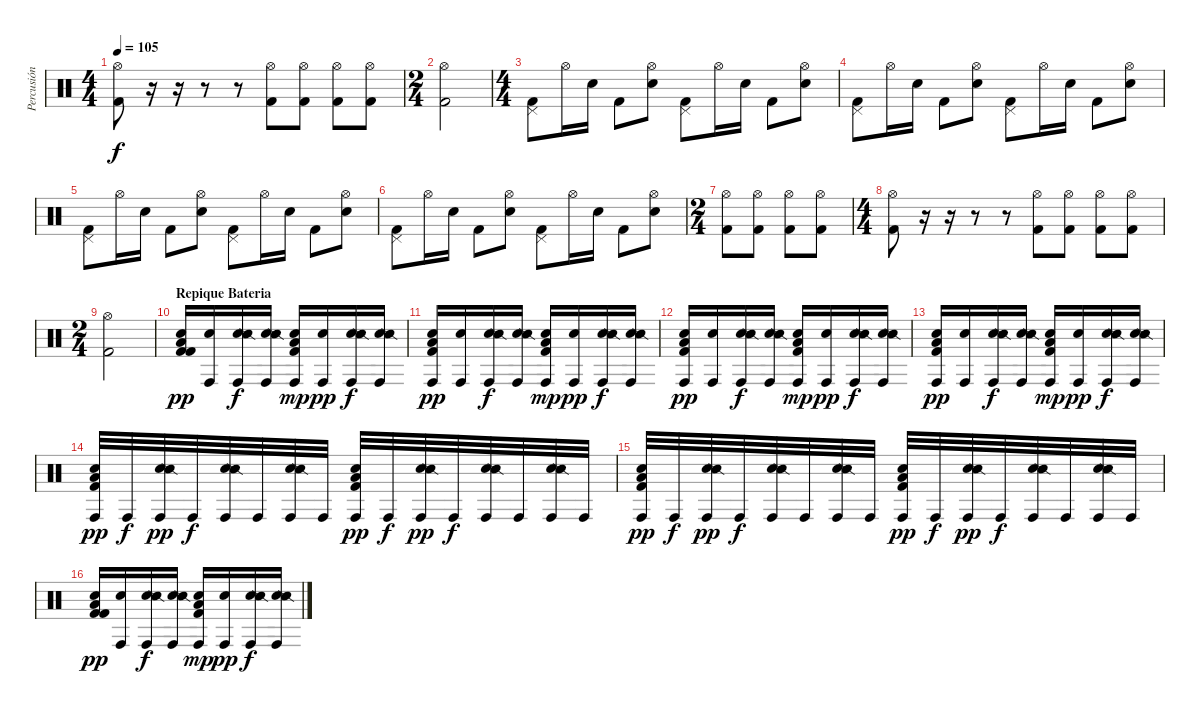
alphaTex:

\track ("Percusión" "Percusión") {instrument percussion}
\staff {score}
\articulation defaults
\ts (4 4)
\tempo 105
\clef neutral
\ks c
("Hi-Hat (open)" "Kick (hit) 2").8{dy f} r.16 r.16 r.8 r.8 ("Hi-Hat (open)" "Kick (hit) 2").8 ("Hi-Hat (open)" "Kick (hit) 2").8 ("Hi-Hat (open)" "Kick (hit) 2").8 ("Hi-Hat (open)" "Kick (hit) 2").8 |
\ts (2 4)
("Hi-Hat (open)" "Kick (hit) 2").2 |
\ts (4 4)
("Pedal Hi-Hat (hit)" "Kick (hit) 2").8 "Hi-Hat (open)".16 "Electric Snare (hit)".16 "Kick (hit) 2".8 ("Electric Snare (hit)" "Hi-Hat (open)").8 ("Pedal Hi-Hat (hit)" "Kick (hit) 2").8 "Hi-Hat (open)".16 "Electric Snare (hit)".16 "Kick (hit) 2".8 ("Electric Snare (hit)" "Hi-Hat (open)").8 |
("Pedal Hi-Hat (hit)" "Kick (hit) 2").8 "Hi-Hat (open)".16 "Electric Snare (hit)".16 "Kick (hit) 2".8 ("Electric Snare (hit)" "Hi-Hat (open)").8 ("Pedal Hi-Hat (hit)" "Kick (hit) 2").8 "Hi-Hat (open)".16 "Electric Snare (hit)".16 "Kick (hit) 2".8 ("Electric Snare (hit)" "Hi-Hat (open)").8 |
("Pedal Hi-Hat (hit)" "Kick (hit) 2").8 "Hi-Hat (open)".16 "Electric Snare (hit)".16 "Kick (hit) 2".8 ("Electric Snare (hit)" "Hi-Hat (open)").8 ("Pedal Hi-Hat (hit)" "Kick (hit) 2").8 "Hi-Hat (open)".16 "Electric Snare (hit)".16 "Kick (hit) 2".8 ("Electric Snare (hit)" "Hi-Hat (open)").8 |
("Pedal Hi-Hat (hit)" "Kick (hit) 2").8 "Hi-Hat (open)".16 "Electric Snare (hit)".16 "Kick (hit) 2".8 ("Electric Snare (hit)" "Hi-Hat (open)").8 ("Pedal Hi-Hat (hit)" "Kick (hit) 2").8 "Hi-Hat (open)".16 "Electric Snare (hit)".16 "Kick (hit) 2".8 ("Electric Snare (hit)" "Hi-Hat (open)").8 |
\ts (2 4)
("Hi-Hat (open)" "Kick (hit) 2").8 ("Hi-Hat (open)" "Kick (hit) 2").8 ("Hi-Hat (open)" "Kick (hit) 2").8 ("Hi-Hat (open)" "Kick (hit) 2").8 |
\ts (4 4)
("Hi-Hat (open)" "Kick (hit) 2").8 r.16 r.16 r.8 r.8 ("Hi-Hat (open)" "Kick (hit) 2").8 ("Hi-Hat (open)" "Kick (hit) 2").8 ("Hi-Hat (open)" "Kick (hit) 2").8 ("Hi-Hat (open)" "Kick (hit) 2").8 |
\ts (2 4)
("Hi-Hat (open)" "Kick (hit) 2").2 |
\section ("" "Repique Bateria")
("Electric Snare (hit)" "Kick (hit) 2" "Kick (hit) 2" "Low Floor Tom (hit)").16{dy pp} ("Electric Snare (hit)" "Conga high (hit)").16 ("Electric Snare (hit)" "Snare (side stick) 2" "Conga high (hit)").16{dy f} ("Electric Snare (hit)" "Snare (side stick) 2" "Conga high (hit)").16 ("Electric Snare (hit)" "Conga high (hit)" "Kick (hit) 2" "Low Floor Tom (hit)").16{dy mp} ("Electric Snare (hit)" "Conga high (hit)").16{dy pp} ("Electric Snare (hit)" "Snare (side stick) 2" "Conga high (hit)").16{dy f} ("Electric Snare (hit)" "Snare (side stick) 2" "Conga high (hit)").16 |
("Electric Snare (hit)" "Kick (hit) 2" "Conga high (hit)" "Low Floor Tom (hit)").16{dy pp} ("Electric Snare (hit)" "Conga high (hit)").16 ("Electric Snare (hit)" "Snare (side stick) 2" "Conga high (hit)").16{dy f} ("Electric Snare (hit)" "Snare (side stick) 2" "Conga high (hit)").16 ("Electric Snare (hit)" "Conga high (hit)" "Kick (hit) 2" "Low Floor Tom (hit)").16{dy mp} ("Electric Snare (hit)" "Conga high (hit)").16{dy pp} ("Electric Snare (hit)" "Snare (side stick) 2" "Conga high (hit)").16{dy f} ("Electric Snare (hit)" "Snare (side stick) 2" "Conga high (hit)").16 |
("Electric Snare (hit)" "Kick (hit) 2" "Conga high (hit)" "Low Floor Tom (hit)").16{dy pp} ("Electric Snare (hit)" "Conga high (hit)").16 ("Electric Snare (hit)" "Snare (side stick) 2" "Conga high (hit)").16{dy f} ("Electric Snare (hit)" "Snare (side stick) 2" "Conga high (hit)").16 ("Electric Snare (hit)" "Conga high (hit)" "Kick (hit) 2" "Low Floor Tom (hit)").16{dy mp} ("Electric Snare (hit)" "Conga high (hit)").16{dy pp} ("Electric Snare (hit)" "Snare (side stick) 2" "Conga high (hit)").16{dy f} ("Electric Snare (hit)" "Snare (side stick) 2" "Conga high (hit)").16 |
("Electric Snare (hit)" "Kick (hit) 2" "Conga high (hit)" "Low Floor Tom (hit)").16{dy pp} ("Electric Snare (hit)" "Conga high (hit)").16 ("Electric Snare (hit)" "Snare (side stick) 2" "Conga high (hit)").16{dy f} ("Electric Snare (hit)" "Snare (side stick) 2" "Conga high (hit)").16 ("Electric Snare (hit)" "Conga high (hit)" "Kick (hit) 2" "Low Floor Tom (hit)").16{dy mp} ("Electric Snare (hit)" "Conga high (hit)").16{dy pp} ("Electric Snare (hit)" "Snare (side stick) 2" "Conga high (hit)").16{dy f} ("Electric Snare (hit)" "Snare (side stick) 2" "Conga high (hit)").16 |
("Conga high (hit)" "Electric Snare (hit)" "Kick (hit) 2" "Low Floor Tom (hit)").32{dy pp} "Conga high (hit)".32{dy f} ("Conga high (hit)" "Electric Snare (hit)" "Snare (side stick) 2").32{dy pp} "Conga high (hit)".32{dy f} ("Conga high (hit)" "Electric Snare (hit)" "Snare (side stick) 2").32 "Conga high (hit)".32 ("Conga high (hit)" "Electric Snare (hit)" "Snare (side stick) 2").32 "Conga high (hit)".32 ("Conga high (hit)" "Electric Snare (hit)" "Kick (hit) 2" "Low Floor Tom (hit)").32{dy pp} "Conga high (hit)".32{dy f} ("Conga high (hit)" "Electric Snare (hit)" "Snare (side stick) 2").32{dy pp} "Conga high (hit)".32{dy f} ("Conga high (hit)" "Electric Snare (hit)" "Snare (side stick) 2").32 "Conga high (hit)".32 ("Conga high (hit)" "Electric Snare (hit)" "Snare (side stick) 2").32 "Conga high (hit)".32 |
("Conga high (hit)" "Electric Snare (hit)" "Kick (hit) 2" "Low Floor Tom (hit)").32{dy pp} "Conga high (hit)".32{dy f} ("Conga high (hit)" "Electric Snare (hit)" "Snare (side stick) 2").32{dy pp} "Conga high (hit)".32{dy f} ("Conga high (hit)" "Electric Snare (hit)" "Snare (side stick) 2").32 "Conga high (hit)".32 ("Conga high (hit)" "Electric Snare (hit)" "Snare (side stick) 2").32 "Conga high (hit)".32 ("Conga high (hit)" "Electric Snare (hit)" "Kick (hit) 2" "Low Floor Tom (hit)").32{dy pp} "Conga high (hit)".32{dy f} ("Conga high (hit)" "Electric Snare (hit)" "Snare (side stick) 2").32{dy pp} "Conga high (hit)".32{dy f} ("Conga high (hit)" "Electric Snare (hit)" "Snare (side stick) 2").32 "Conga high (hit)".32 ("Conga high (hit)" "Electric Snare (hit)" "Snare (side stick) 2").32 "Conga high (hit)".32 |
("Electric Snare (hit)" "Kick (hit) 2" "Kick (hit) 2" "Low Floor Tom (hit)").16{dy pp} ("Electric Snare (hit)" "Conga high (hit)").16 ("Electric Snare (hit)" "Snare (side stick) 2" "Conga high (hit)").16{dy f} ("Electric Snare (hit)" "Snare (side stick) 2" "Conga high (hit)").16 ("Electric Snare (hit)" "Conga high (hit)" "Kick (hit) 2" "Low Floor Tom (hit)").16{dy mp} ("Electric Snare (hit)" "Conga high (hit)").16{dy pp} ("Electric Snare (hit)" "Snare (side stick) 2" "Conga high (hit)").16{dy f} ("Electric Snare (hit)" "Snare (side stick) 2" "Conga high (hit)").16
